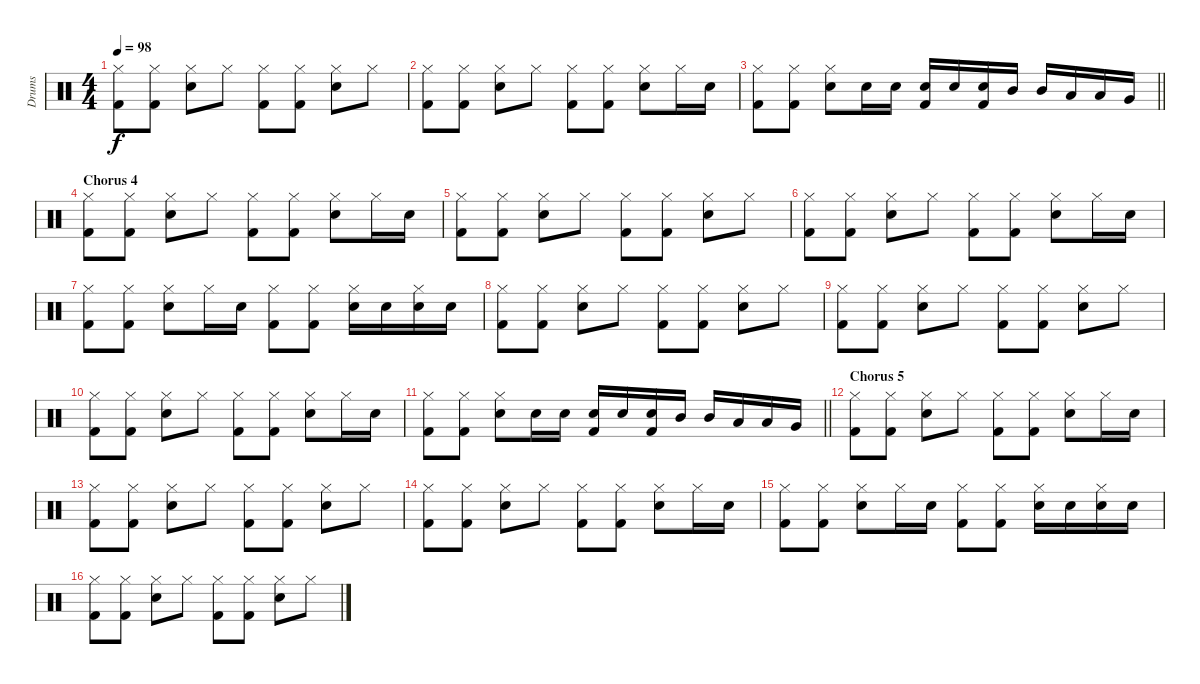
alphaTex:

\track ("Drums" "Drums") {instrument percussion}
\staff {score}
\articulation defaults
\ts (4 4)
\tempo 98
\clef neutral
\ks c
("Hi-Hat (closed)" "Kick (hit) 2").8{dy f} ("Hi-Hat (closed)" "Kick (hit) 2").8 ("Hi-Hat (closed)" "Electric Snare (hit)").8 "Hi-Hat (closed)".8 ("Hi-Hat (closed)" "Kick (hit) 2").8 ("Hi-Hat (closed)" "Kick (hit) 2").8 ("Hi-Hat (closed)" "Electric Snare (hit)").8 "Hi-Hat (closed)".8 |
("Hi-Hat (closed)" "Kick (hit) 2").8 ("Hi-Hat (closed)" "Kick (hit) 2").8 ("Hi-Hat (closed)" "Electric Snare (hit)").8 "Hi-Hat (closed)".8 ("Hi-Hat (closed)" "Kick (hit) 2").8 ("Hi-Hat (closed)" "Kick (hit) 2").8 ("Hi-Hat (closed)" "Electric Snare (hit)").8 "Hi-Hat (closed)".16 "Electric Snare (hit)".16 |
\barLineRight lightlight
("Hi-Hat (closed)" "Kick (hit) 2").8 ("Hi-Hat (closed)" "Kick (hit) 2").8 ("Hi-Hat (closed)" "Electric Snare (hit)").8 "Electric Snare (hit)".16 "Electric Snare (hit)".16 ("Electric Snare (hit)" "Kick (hit) 2").16 "Electric Snare (hit)".16 ("Electric Snare (hit)" "Kick (hit) 2").16 "Mid Tom (hit)".16 "Mid Tom (hit)".16 "Low Tom (hit)".16 "Low Tom (hit)".16 "Very Low Tom (hit)".16 |
\section ("" "Chorus 4")
("Hi-Hat (closed)" "Kick (hit) 2").8 ("Hi-Hat (closed)" "Kick (hit) 2").8 ("Hi-Hat (closed)" "Electric Snare (hit)").8 "Hi-Hat (closed)".8 ("Hi-Hat (closed)" "Kick (hit) 2").8 ("Hi-Hat (closed)" "Kick (hit) 2").8 ("Hi-Hat (closed)" "Electric Snare (hit)").8 "Hi-Hat (closed)".16 "Electric Snare (hit)".16 |
("Hi-Hat (closed)" "Kick (hit) 2").8 ("Hi-Hat (closed)" "Kick (hit) 2").8 ("Hi-Hat (closed)" "Electric Snare (hit)").8 "Hi-Hat (closed)".8 ("Hi-Hat (closed)" "Kick (hit) 2").8 ("Hi-Hat (closed)" "Kick (hit) 2").8 ("Hi-Hat (closed)" "Electric Snare (hit)").8 "Hi-Hat (closed)".8 |
("Hi-Hat (closed)" "Kick (hit) 2").8 ("Hi-Hat (closed)" "Kick (hit) 2").8 ("Hi-Hat (closed)" "Electric Snare (hit)").8 "Hi-Hat (closed)".8 ("Hi-Hat (closed)" "Kick (hit) 2").8 ("Hi-Hat (closed)" "Kick (hit) 2").8 ("Hi-Hat (closed)" "Electric Snare (hit)").8 "Hi-Hat (closed)".16 "Electric Snare (hit)".16 |
("Hi-Hat (closed)" "Kick (hit) 2").8 ("Hi-Hat (closed)" "Kick (hit) 2").8 ("Hi-Hat (closed)" "Electric Snare (hit)").8 "Hi-Hat (closed)".16 "Electric Snare (hit)".16 ("Hi-Hat (closed)" "Kick (hit) 2").8 ("Hi-Hat (closed)" "Kick (hit) 2").8 ("Hi-Hat (closed)" "Electric Snare (hit)").16 "Electric Snare (hit)".16 ("Hi-Hat (closed)" "Electric Snare (hit)").16 "Electric Snare (hit)".16 |
("Hi-Hat (closed)" "Kick (hit) 2").8 ("Hi-Hat (closed)" "Kick (hit) 2").8 ("Hi-Hat (closed)" "Electric Snare (hit)").8 "Hi-Hat (closed)".8 ("Hi-Hat (closed)" "Kick (hit) 2").8 ("Hi-Hat (closed)" "Kick (hit) 2").8 ("Hi-Hat (closed)" "Electric Snare (hit)").8 "Hi-Hat (closed)".8 |
("Hi-Hat (closed)" "Kick (hit) 2").8 ("Hi-Hat (closed)" "Kick (hit) 2").8 ("Hi-Hat (closed)" "Electric Snare (hit)").8 "Hi-Hat (closed)".8 ("Hi-Hat (closed)" "Kick (hit) 2").8 ("Hi-Hat (closed)" "Kick (hit) 2").8 ("Hi-Hat (closed)" "Electric Snare (hit)").8 "Hi-Hat (closed)".8 |
("Hi-Hat (closed)" "Kick (hit) 2").8 ("Hi-Hat (closed)" "Kick (hit) 2").8 ("Hi-Hat (closed)" "Electric Snare (hit)").8 "Hi-Hat (closed)".8 ("Hi-Hat (closed)" "Kick (hit) 2").8 ("Hi-Hat (closed)" "Kick (hit) 2").8 ("Hi-Hat (closed)" "Electric Snare (hit)").8 "Hi-Hat (closed)".16 "Electric Snare (hit)".16 |
\barLineRight lightlight
("Hi-Hat (closed)" "Kick (hit) 2").8 ("Hi-Hat (closed)" "Kick (hit) 2").8 ("Hi-Hat (closed)" "Electric Snare (hit)").8 "Electric Snare (hit)".16 "Electric Snare (hit)".16 ("Electric Snare (hit)" "Kick (hit) 2").16 "Electric Snare (hit)".16 ("Electric Snare (hit)" "Kick (hit) 2").16 "Mid Tom (hit)".16 "Mid Tom (hit)".16 "Low Tom (hit)".16 "Low Tom (hit)".16 "Very Low Tom (hit)".16 |
\section ("" "Chorus 5")
("Hi-Hat (closed)" "Kick (hit) 2").8 ("Hi-Hat (closed)" "Kick (hit) 2").8 ("Hi-Hat (closed)" "Electric Snare (hit)").8 "Hi-Hat (closed)".8 ("Hi-Hat (closed)" "Kick (hit) 2").8 ("Hi-Hat (closed)" "Kick (hit) 2").8 ("Hi-Hat (closed)" "Electric Snare (hit)").8 "Hi-Hat (closed)".16 "Electric Snare (hit)".16 |
("Hi-Hat (closed)" "Kick (hit) 2").8 ("Hi-Hat (closed)" "Kick (hit) 2").8 ("Hi-Hat (closed)" "Electric Snare (hit)").8 "Hi-Hat (closed)".8 ("Hi-Hat (closed)" "Kick (hit) 2").8 ("Hi-Hat (closed)" "Kick (hit) 2").8 ("Hi-Hat (closed)" "Electric Snare (hit)").8 "Hi-Hat (closed)".8 |
("Hi-Hat (closed)" "Kick (hit) 2").8 ("Hi-Hat (closed)" "Kick (hit) 2").8 ("Hi-Hat (closed)" "Electric Snare (hit)").8 "Hi-Hat (closed)".8 ("Hi-Hat (closed)" "Kick (hit) 2").8 ("Hi-Hat (closed)" "Kick (hit) 2").8 ("Hi-Hat (closed)" "Electric Snare (hit)").8 "Hi-Hat (closed)".16 "Electric Snare (hit)".16 |
("Hi-Hat (closed)" "Kick (hit) 2").8 ("Hi-Hat (closed)" "Kick (hit) 2").8 ("Hi-Hat (closed)" "Electric Snare (hit)").8 "Hi-Hat (closed)".16 "Electric Snare (hit)".16 ("Hi-Hat (closed)" "Kick (hit) 2").8 ("Hi-Hat (closed)" "Kick (hit) 2").8 ("Hi-Hat (closed)" "Electric Snare (hit)").16 "Electric Snare (hit)".16 ("Hi-Hat (closed)" "Electric Snare (hit)").16 "Electric Snare (hit)".16 |
("Hi-Hat (closed)" "Kick (hit) 2").8 ("Hi-Hat (closed)" "Kick (hit) 2").8 ("Hi-Hat (closed)" "Electric Snare (hit)").8 "Hi-Hat (closed)".8 ("Hi-Hat (closed)" "Kick (hit) 2").8 ("Hi-Hat (closed)" "Kick (hit) 2").8 ("Hi-Hat (closed)" "Electric Snare (hit)").8 "Hi-Hat (closed)".8
